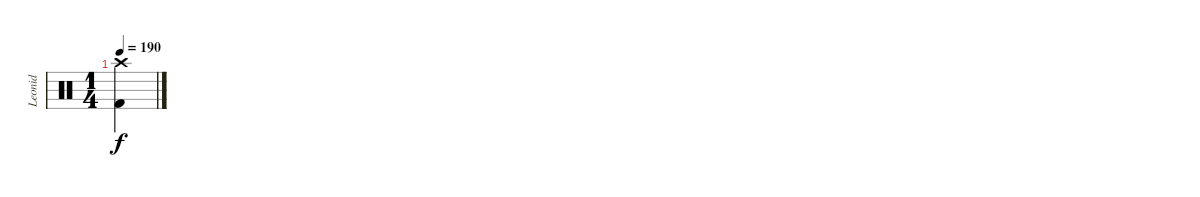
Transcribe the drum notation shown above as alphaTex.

\track ("Leonid" "Leonid") {instrument percussion}
\staff {score}
\articulation defaults
\ts (1 4)
\tempo 190
\clef neutral
\ks c
("Crash high (hit)" "Kick (hit) 2").4{dy f}
